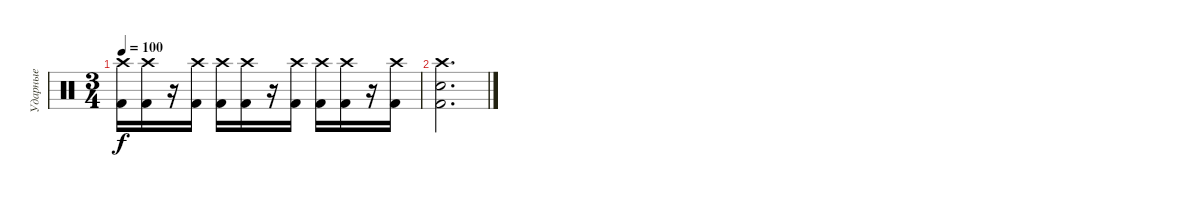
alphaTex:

\track ("Ударные" "Ударные") {instrument percussion}
\staff {score}
\articulation defaults
\ts (3 4)
\tempo 100
\clef neutral
\ks c
("Crash high (hit)" "Kick (hit) 2").16{dy f} ("Crash high (hit)" "Kick (hit) 2").16 r.16 ("Crash high (hit)" "Kick (hit) 2").16 ("Crash high (hit)" "Kick (hit) 2").16 ("Crash high (hit)" "Kick (hit) 2").16 r.16 ("Crash high (hit)" "Kick (hit) 2").16 ("Crash high (hit)" "Kick (hit) 2").16 ("Crash high (hit)" "Kick (hit) 2").16 r.16 ("Crash high (hit)" "Kick (hit) 2").16 |
("Crash high (hit)" "Electric Snare (hit)" "Kick (hit) 2").2{d}
